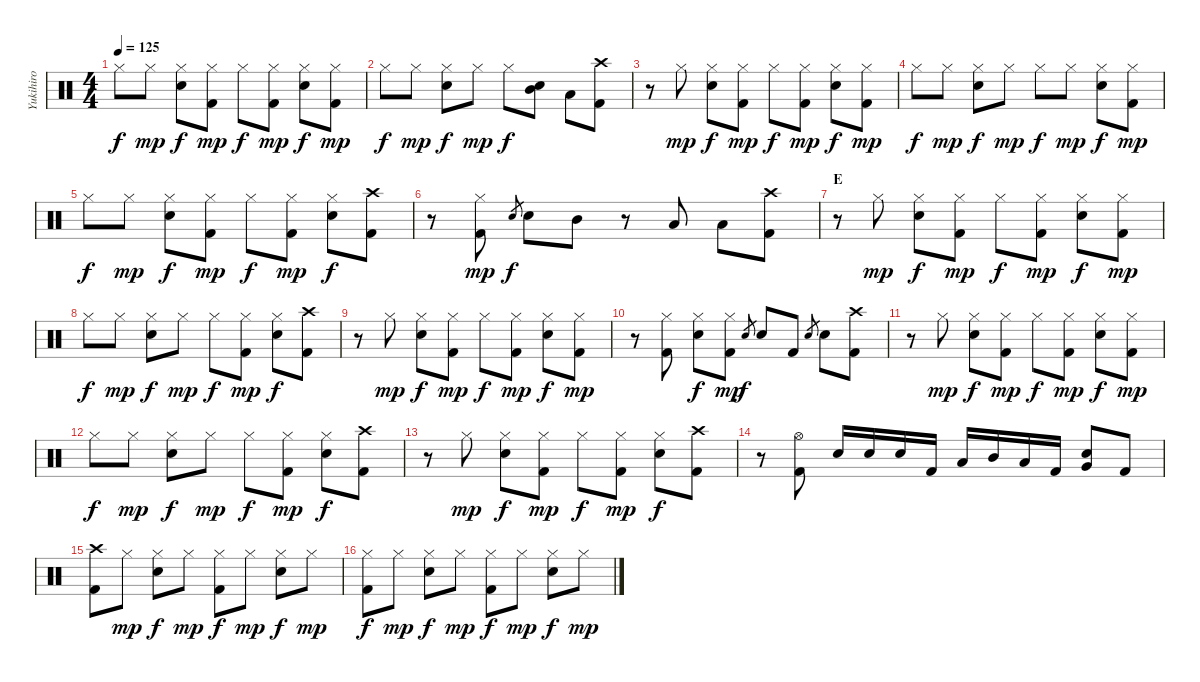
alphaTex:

\track ("Yukihiro" "Yukihiro") {instrument percussion}
\staff {score}
\articulation defaults
\ts (4 4)
\tempo 125
\clef neutral
\ks c "Hi-Hat (closed)".8{dy f} "Hi-Hat (closed)".8{dy mp}
("Hi-Hat (closed)" "Electric Snare (hit)").8{dy f} ("Hi-Hat (closed)" "Kick (hit) 2").8{dy mp} "Hi-Hat (closed)".8{dy f} ("Hi-Hat (closed)" "Kick (hit) 2").8{dy mp} ("Hi-Hat (closed)" "Electric Snare (hit)").8{dy f} ("Hi-Hat (closed)" "Kick (hit) 2").8{dy mp} |
"Hi-Hat (closed)".8{dy f} "Hi-Hat (closed)".8{dy mp} ("Hi-Hat (closed)" "Electric Snare (hit)").8{dy f} "Hi-Hat (closed)".8{dy mp} "Hi-Hat (closed)".8{dy f} ("Electric Snare (hit)" "Mid Tom (hit)").8 "Low Tom (hit)".8 ("Crash high (hit)" "Kick (hit) 2").8 |
r.8 "Hi-Hat (closed)".8{dy mp} ("Hi-Hat (closed)" "Electric Snare (hit)").8{dy f} ("Hi-Hat (closed)" "Kick (hit) 2").8{dy mp} "Hi-Hat (closed)".8{dy f} ("Hi-Hat (closed)" "Kick (hit) 2").8{dy mp} ("Hi-Hat (closed)" "Electric Snare (hit)").8{dy f} ("Hi-Hat (closed)" "Kick (hit) 2").8{dy mp} |
"Hi-Hat (closed)".8{dy f} "Hi-Hat (closed)".8{dy mp} ("Hi-Hat (closed)" "Electric Snare (hit)").8{dy f} "Hi-Hat (closed)".8{dy mp} "Hi-Hat (closed)".8{dy f} "Hi-Hat (closed)".8{dy mp} ("Hi-Hat (closed)" "Electric Snare (hit)").8{dy f} ("Hi-Hat (closed)" "Kick (hit) 2").8{dy mp} |
"Hi-Hat (closed)".8{dy f} "Hi-Hat (closed)".8{dy mp} ("Hi-Hat (closed)" "Electric Snare (hit)").8{dy f} ("Hi-Hat (closed)" "Kick (hit) 2").8{dy mp} "Hi-Hat (closed)".8{dy f} ("Hi-Hat (closed)" "Kick (hit) 2").8{dy mp} ("Hi-Hat (closed)" "Electric Snare (hit)").8{dy f} ("Crash high (hit)" "Kick (hit) 2").8 |
r.8 ("Hi-Hat (closed)" "Kick (hit) 2").8{dy mp} "Electric Snare (hit)".8{gr dy f} "Electric Snare (hit)".8 "Mid Tom (hit)".8 r.8 "Low Tom (hit)".8 "Low Tom (hit)".8 ("Crash high (hit)" "Kick (hit) 2").8 |
\section ("" "E")
r.8 "Hi-Hat (closed)".8{dy mp} ("Hi-Hat (closed)" "Electric Snare (hit)").8{dy f} ("Hi-Hat (closed)" "Kick (hit) 2").8{dy mp} "Hi-Hat (closed)".8{dy f} ("Hi-Hat (closed)" "Kick (hit) 2").8{dy mp} ("Hi-Hat (closed)" "Electric Snare (hit)").8{dy f} ("Hi-Hat (closed)" "Kick (hit) 2").8{dy mp} |
"Hi-Hat (closed)".8{dy f} "Hi-Hat (closed)".8{dy mp} ("Hi-Hat (closed)" "Electric Snare (hit)").8{dy f} "Hi-Hat (closed)".8{dy mp} "Hi-Hat (closed)".8{dy f} ("Hi-Hat (closed)" "Kick (hit) 2").8{dy mp} ("Hi-Hat (closed)" "Electric Snare (hit)").8{dy f} ("Crash high (hit)" "Kick (hit) 2").8 |
r.8 "Hi-Hat (closed)".8{dy mp} ("Hi-Hat (closed)" "Electric Snare (hit)").8{dy f} ("Hi-Hat (closed)" "Kick (hit) 2").8{dy mp} "Hi-Hat (closed)".8{dy f} ("Hi-Hat (closed)" "Kick (hit) 2").8{dy mp} ("Hi-Hat (closed)" "Electric Snare (hit)").8{dy f} ("Hi-Hat (closed)" "Kick (hit) 2").8{dy mp} |
r.8 ("Hi-Hat (closed)" "Kick (hit) 2").8 ("Hi-Hat (closed)" "Electric Snare (hit)").8{dy f} ("Hi-Hat (closed)" "Kick (hit) 2").8{dy mp} "Electric Snare (hit)".8{gr dy f} "Electric Snare (hit)".8 "Kick (hit) 2".8 "Electric Snare (hit)".8{gr} "Electric Snare (hit)".8 ("Crash high (hit)" "Kick (hit) 2").8 |
r.8 "Hi-Hat (closed)".8{dy mp} ("Hi-Hat (closed)" "Electric Snare (hit)").8{dy f} ("Hi-Hat (closed)" "Kick (hit) 2").8{dy mp} "Hi-Hat (closed)".8{dy f} ("Hi-Hat (closed)" "Kick (hit) 2").8{dy mp} ("Hi-Hat (closed)" "Electric Snare (hit)").8{dy f} ("Hi-Hat (closed)" "Kick (hit) 2").8{dy mp} |
"Hi-Hat (closed)".8{dy f} "Hi-Hat (closed)".8{dy mp} ("Hi-Hat (closed)" "Electric Snare (hit)").8{dy f} "Hi-Hat (closed)".8{dy mp} "Hi-Hat (closed)".8{dy f} ("Hi-Hat (closed)" "Kick (hit) 2").8{dy mp} ("Hi-Hat (closed)" "Electric Snare (hit)").8{dy f} ("Crash high (hit)" "Kick (hit) 2").8 |
r.8 "Hi-Hat (closed)".8{dy mp} ("Hi-Hat (closed)" "Electric Snare (hit)").8{dy f} ("Hi-Hat (closed)" "Kick (hit) 2").8{dy mp} "Hi-Hat (closed)".8{dy f} ("Hi-Hat (closed)" "Kick (hit) 2").8{dy mp} ("Hi-Hat (closed)" "Electric Snare (hit)").8{dy f} ("Crash high (hit)" "Kick (hit) 2").8 |
r.8 ("Hi-Hat (open)" "Kick (hit) 2").8 "Electric Snare (hit)".16 "Electric Snare (hit)".16 "Electric Snare (hit)".16 "Kick (hit) 2".16 "Low Tom (hit)".16 "Mid Tom (hit)".16 "Low Tom (hit)".16 "Kick (hit) 2".16 ("Electric Snare (hit)" "Very Low Tom (hit)").8 "Kick (hit) 2".8 |
("Crash high (hit)" "Kick (hit) 2").8 "Hi-Hat (closed)".8{dy mp} ("Hi-Hat (closed)" "Electric Snare (hit)").8{dy f} "Hi-Hat (closed)".8{dy mp} ("Hi-Hat (closed)" "Kick (hit) 2").8{dy f} "Hi-Hat (closed)".8{dy mp} ("Hi-Hat (closed)" "Electric Snare (hit)").8{dy f} "Hi-Hat (closed)".8{dy mp} |
("Hi-Hat (closed)" "Kick (hit) 2").8{dy f} "Hi-Hat (closed)".8{dy mp} ("Hi-Hat (closed)" "Electric Snare (hit)").8{dy f} "Hi-Hat (closed)".8{dy mp} ("Hi-Hat (closed)" "Kick (hit) 2").8{dy f} "Hi-Hat (closed)".8{dy mp} ("Hi-Hat (closed)" "Electric Snare (hit)").8{dy f} "Hi-Hat (closed)".8{dy mp}
